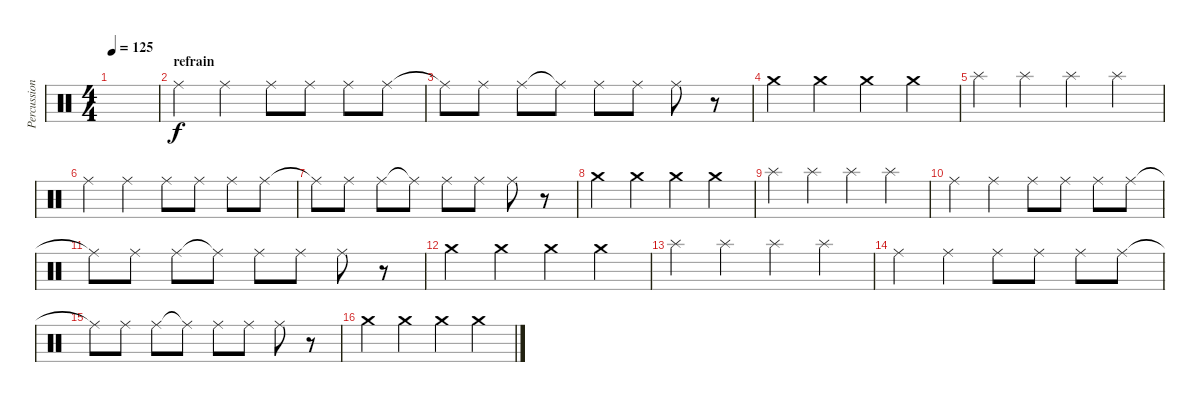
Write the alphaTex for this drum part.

\track ("Percussions" "Percussion") {instrument percussion}
\staff {score}
\articulation defaults
\ts (4 4)
\tempo 125
\clef neutral
\ks c
|
\section ("" "refrain")
"Ride (middle)".4 "Ride (middle)".4 "Ride (middle)".8 "Ride (middle)".8 "Ride (middle)".8 "Ride (middle)".8 |
"Ride (middle)"{t}.8 "Ride (middle)".8 "Ride (middle)".8 "Ride (middle)"{t}.8 "Ride (middle)".8 "Ride (middle)".8 "Ride (middle)".8 r.8 |
"Crash medium (hit)".4 "Crash medium (hit)".4 "Crash medium (hit)".4 "Crash medium (hit)".4 |
"Splash (hit)".4 "Splash (hit)".4 "Splash (hit)".4 "Splash (hit)".4 |
"Ride (middle)".4 "Ride (middle)".4 "Ride (middle)".8 "Ride (middle)".8 "Ride (middle)".8 "Ride (middle)".8 |
"Ride (middle)"{t}.8 "Ride (middle)".8 "Ride (middle)".8 "Ride (middle)"{t}.8 "Ride (middle)".8 "Ride (middle)".8 "Ride (middle)".8 r.8 |
"Crash medium (hit)".4 "Crash medium (hit)".4 "Crash medium (hit)".4 "Crash medium (hit)".4 |
"Splash (hit)".4 "Splash (hit)".4 "Splash (hit)".4 "Splash (hit)".4 |
"Ride (middle)".4 "Ride (middle)".4 "Ride (middle)".8 "Ride (middle)".8 "Ride (middle)".8 "Ride (middle)".8 |
"Ride (middle)"{t}.8 "Ride (middle)".8 "Ride (middle)".8 "Ride (middle)"{t}.8 "Ride (middle)".8 "Ride (middle)".8 "Ride (middle)".8 r.8 |
"Crash medium (hit)".4 "Crash medium (hit)".4 "Crash medium (hit)".4 "Crash medium (hit)".4 |
"Splash (hit)".4 "Splash (hit)".4 "Splash (hit)".4 "Splash (hit)".4 |
"Ride (middle)".4 "Ride (middle)".4 "Ride (middle)".8 "Ride (middle)".8 "Ride (middle)".8 "Ride (middle)".8 |
"Ride (middle)"{t}.8 "Ride (middle)".8 "Ride (middle)".8 "Ride (middle)"{t}.8 "Ride (middle)".8 "Ride (middle)".8 "Ride (middle)".8 r.8 |
"Crash medium (hit)".4 "Crash medium (hit)".4 "Crash medium (hit)".4 "Crash medium (hit)".4
